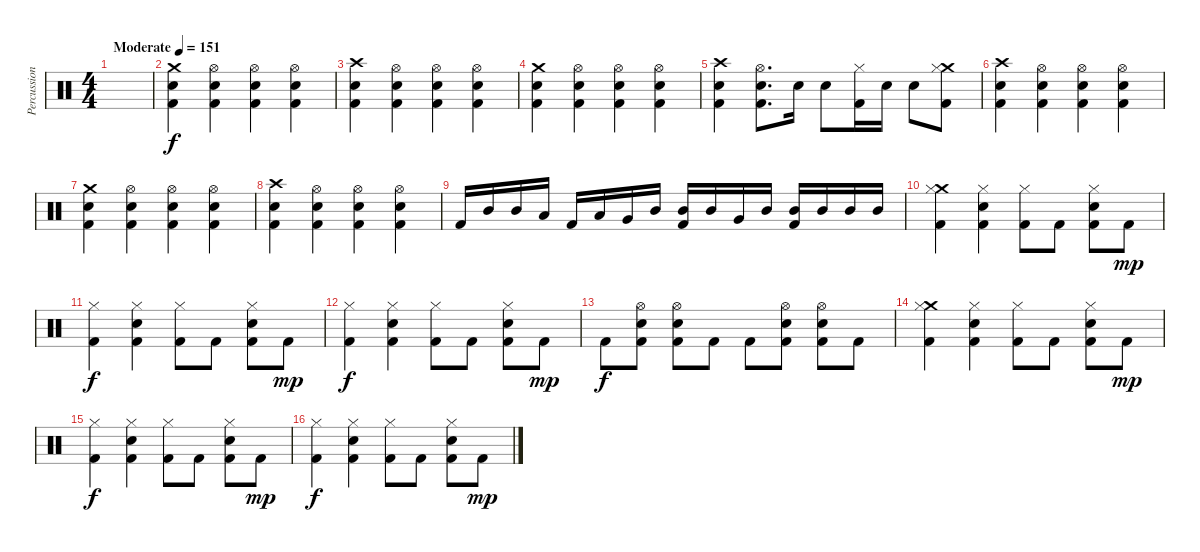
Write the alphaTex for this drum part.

\track ("Percussion" "Percussion") {instrument percussion}
\staff {score}
\articulation defaults
\ts (4 4)
\tempo (151 "Moderate")
\clef neutral
\ks c
|
("Crash medium (hit)" "Snare (hit) 2" "Kick (hit) 2").4 ("Hi-Hat (open)" "Snare (hit) 2" "Kick (hit) 2").4 ("Hi-Hat (open)" "Snare (hit) 2" "Kick (hit) 2").4 ("Hi-Hat (open)" "Snare (hit) 2" "Kick (hit) 2").4 |
("Crash high (hit)" "Snare (hit) 2" "Kick (hit) 2").4 ("Hi-Hat (open)" "Snare (hit) 2" "Kick (hit) 2").4 ("Hi-Hat (open)" "Snare (hit) 2" "Kick (hit) 2").4 ("Hi-Hat (open)" "Snare (hit) 2" "Kick (hit) 2").4 |
("Crash medium (hit)" "Snare (hit) 2" "Kick (hit) 2").4 ("Hi-Hat (open)" "Snare (hit) 2" "Kick (hit) 2").4 ("Hi-Hat (open)" "Snare (hit) 2" "Kick (hit) 2").4 ("Hi-Hat (open)" "Snare (hit) 2" "Kick (hit) 2").4 |
("Crash high (hit)" "Snare (hit) 2" "Kick (hit) 2").4 ("Hi-Hat (open)" "Snare (hit) 2" "Kick (hit) 2").8{d} "Snare (hit) 2".16 "Snare (hit) 2".8 ("Hi-Hat (closed)" "Kick (hit) 2").16 "Snare (hit) 2".16 "Snare (hit) 2".8 ("Crash medium (hit)" "Hi-Hat (closed)" "Kick (hit) 2").8 |
("Crash high (hit)" "Snare (hit) 2" "Kick (hit) 2").4 ("Hi-Hat (open)" "Snare (hit) 2" "Kick (hit) 2").4 ("Hi-Hat (open)" "Snare (hit) 2" "Kick (hit) 2").4 ("Hi-Hat (open)" "Snare (hit) 2" "Kick (hit) 2").4 |
("Crash medium (hit)" "Snare (hit) 2" "Kick (hit) 2").4 ("Hi-Hat (open)" "Snare (hit) 2" "Kick (hit) 2").4 ("Hi-Hat (open)" "Snare (hit) 2" "Kick (hit) 2").4 ("Hi-Hat (open)" "Snare (hit) 2" "Kick (hit) 2").4 |
("Crash high (hit)" "Snare (hit) 2" "Kick (hit) 2").4 ("Hi-Hat (open)" "Snare (hit) 2" "Kick (hit) 2").4 ("Hi-Hat (open)" "Snare (hit) 2" "Kick (hit) 2").4 ("Hi-Hat (open)" "Snare (hit) 2" "Kick (hit) 2").4 |
"Kick (hit) 2".16 "Mid Tom (hit)".16 "Mid Tom (hit)".16 "Low Tom (hit)".16 "Kick (hit) 2".16 "Low Tom (hit)".16 "Very Low Tom (hit)".16 "Mid Tom (hit)".16 ("Mid Tom (hit)" "Kick (hit) 2").16 "Mid Tom (hit)".16 "Very Low Tom (hit)".16 "Mid Tom (hit)".16 ("Mid Tom (hit)" "Kick (hit) 2").16 "Mid Tom (hit)".16 "Mid Tom (hit)".16 "Mid Tom (hit)".16 |
("Crash medium (hit)" "Hi-Hat (closed)" "Kick (hit) 2").4 ("Hi-Hat (closed)" "Snare (hit) 2" "Kick (hit) 2").4 ("Hi-Hat (closed)" "Kick (hit) 2").8 "Kick (hit) 2".8 ("Hi-Hat (closed)" "Snare (hit) 2" "Kick (hit) 2").8 "Kick (hit) 2".8{dy mp} |
("Hi-Hat (closed)" "Kick (hit) 2").4{dy f} ("Hi-Hat (closed)" "Snare (hit) 2" "Kick (hit) 2").4 ("Hi-Hat (closed)" "Kick (hit) 2").8 "Kick (hit) 2".8 ("Hi-Hat (closed)" "Snare (hit) 2" "Kick (hit) 2").8 "Kick (hit) 2".8{dy mp} |
("Hi-Hat (closed)" "Kick (hit) 2").4{dy f} ("Hi-Hat (closed)" "Snare (hit) 2" "Kick (hit) 2").4 ("Hi-Hat (closed)" "Kick (hit) 2").8 "Kick (hit) 2".8 ("Hi-Hat (closed)" "Snare (hit) 2" "Kick (hit) 2").8 "Kick (hit) 2".8{dy mp} |
"Kick (hit) 2".8{dy f} ("Hi-Hat (open)" "Snare (hit) 2" "Kick (hit) 2").8 ("Hi-Hat (open)" "Snare (hit) 2" "Kick (hit) 2").8 "Kick (hit) 2".8 "Kick (hit) 2".8 ("Hi-Hat (open)" "Snare (hit) 2" "Kick (hit) 2").8 ("Hi-Hat (open)" "Snare (hit) 2" "Kick (hit) 2").8 "Kick (hit) 2".8 |
("Crash medium (hit)" "Hi-Hat (closed)" "Kick (hit) 2").4 ("Hi-Hat (closed)" "Snare (hit) 2" "Kick (hit) 2").4 ("Hi-Hat (closed)" "Kick (hit) 2").8 "Kick (hit) 2".8 ("Hi-Hat (closed)" "Snare (hit) 2" "Kick (hit) 2").8 "Kick (hit) 2".8{dy mp} |
("Hi-Hat (closed)" "Kick (hit) 2").4{dy f} ("Hi-Hat (closed)" "Snare (hit) 2" "Kick (hit) 2").4 ("Hi-Hat (closed)" "Kick (hit) 2").8 "Kick (hit) 2".8 ("Hi-Hat (closed)" "Snare (hit) 2" "Kick (hit) 2").8 "Kick (hit) 2".8{dy mp} |
("Hi-Hat (closed)" "Kick (hit) 2").4{dy f} ("Hi-Hat (closed)" "Snare (hit) 2" "Kick (hit) 2").4 ("Hi-Hat (closed)" "Kick (hit) 2").8 "Kick (hit) 2".8 ("Hi-Hat (closed)" "Snare (hit) 2" "Kick (hit) 2").8 "Kick (hit) 2".8{dy mp}
